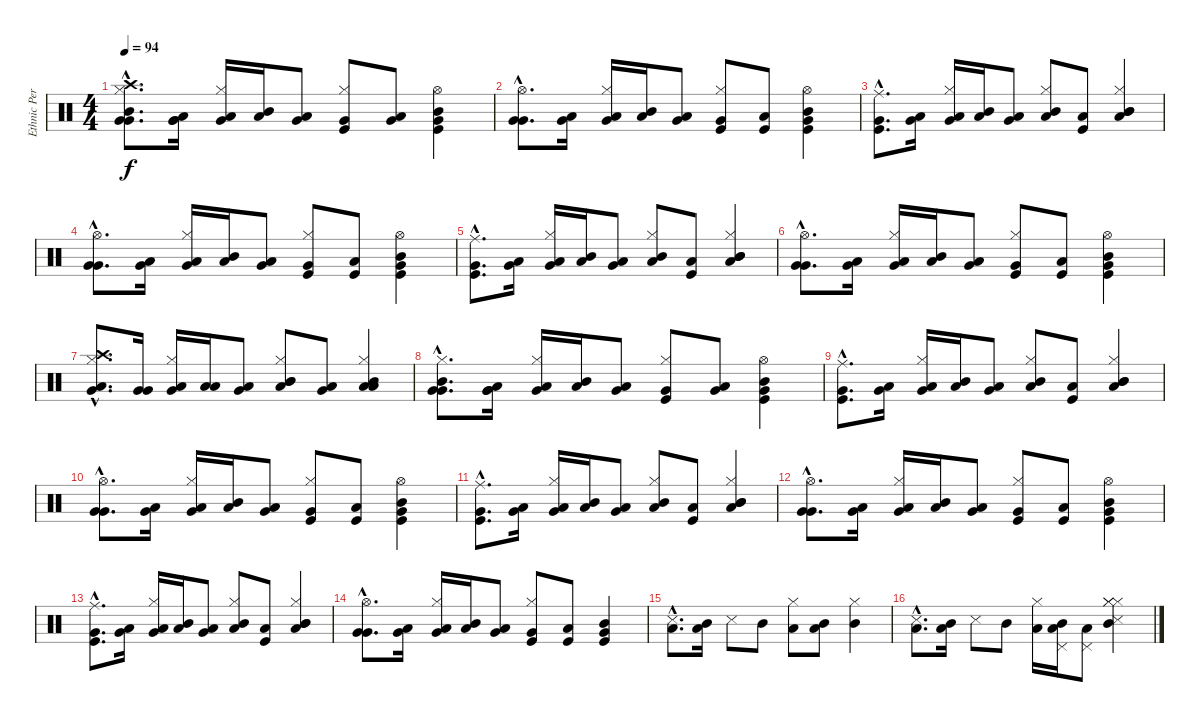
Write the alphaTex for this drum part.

\track ("Ethnic Percussion" "Ethnic Per") {instrument percussion}
\staff {score}
\articulation defaults
\ts (4 4)
\tempo 94
\clef neutral
\ks c
("Very Low Tom (hit)"{hac} "Very Low Tom (hit)"{hac} "Mid Tom (hit)"{hac} "Crash high (hit)"{hac} "Hi-Hat (closed)"{hac}).8{d dy f} ("Very Low Tom (hit)" "Very Low Tom (hit)" "Low Floor Tom (hit)").16 ("Very Low Tom (hit)" "Low Floor Tom (hit)" "Hi-Hat (closed)").16 ("Mid Tom (hit)" "Low Tom (hit)").16 ("Very Low Tom (hit)" "Low Tom (hit)").8 ("Kick (hit)" "Very Low Tom (hit)" "Hi-Hat (closed)").8 ("Low Tom (hit)" "Very Low Tom (hit)").8 ("Very Low Tom (hit)" "Kick (hit)" "Hi-Hat (open)" "Mid Tom (hit)").4 |
("Hi-Hat (open)"{hac} "Very Low Tom (hit)"{hac} "Very Low Tom (hit)"{hac}).8{d} ("Low Tom (hit)" "Very Low Tom (hit)").16 ("Very Low Tom (hit)" "Low Tom (hit)" "Hi-Hat (closed)").16 ("Mid Tom (hit)" "Low Tom (hit)").16 ("Very Low Tom (hit)" "Low Tom (hit)").8 ("Kick (hit)" "Very Low Tom (hit)" "Hi-Hat (closed)").8 ("Low Tom (hit)" "Kick (hit)").8 ("Very Low Tom (hit)" "Kick (hit)" "Hi-Hat (open)" "Mid Tom (hit)").4 |
("Ride (middle)"{hac} "Very Low Tom (hit)"{hac} "Kick (hit)"{hac}).8{d} ("Low Floor Tom (hit)" "Very Low Tom (hit)").16 ("Very Low Tom (hit)" "Low Tom (hit)" "Hi-Hat (closed)").16 ("Mid Tom (hit)" "Low Tom (hit)").16 ("Very Low Tom (hit)" "Low Tom (hit)").8 ("Mid Tom (hit)" "Low Tom (hit)" "Hi-Hat (closed)").8 ("Low Tom (hit)" "Kick (hit)").8 ("Mid Tom (hit)" "Low Floor Tom (hit)" "Mid Tom (hit)" "Hi-Hat (closed)").4 |
("Hi-Hat (open)"{hac} "Very Low Tom (hit)"{hac} "Very Low Tom (hit)"{hac}).8{d} ("Low Tom (hit)" "Very Low Tom (hit)").16 ("Very Low Tom (hit)" "Low Tom (hit)" "Hi-Hat (closed)").16 ("Mid Tom (hit)" "Low Tom (hit)").16 ("Very Low Tom (hit)" "Low Tom (hit)").8 ("Kick (hit)" "Very Low Tom (hit)" "Hi-Hat (closed)").8 ("Low Tom (hit)" "Kick (hit)").8 ("Very Low Tom (hit)" "Kick (hit)" "Hi-Hat (open)" "Mid Tom (hit)").4 |
("Ride (middle)"{hac} "Very Low Tom (hit)"{hac} "Kick (hit)"{hac}).8{d} ("Low Floor Tom (hit)" "Very Low Tom (hit)").16 ("Very Low Tom (hit)" "Low Tom (hit)" "Hi-Hat (closed)").16 ("Mid Tom (hit)" "Low Tom (hit)").16 ("Very Low Tom (hit)" "Low Tom (hit)").8 ("Mid Tom (hit)" "Low Tom (hit)" "Hi-Hat (closed)").8 ("Low Tom (hit)" "Kick (hit)").8 ("Mid Tom (hit)" "Low Floor Tom (hit)" "Mid Tom (hit)" "Hi-Hat (closed)").4 |
("Hi-Hat (open)"{hac} "Very Low Tom (hit)"{hac} "Very Low Tom (hit)"{hac}).8{d} ("Low Tom (hit)" "Very Low Tom (hit)").16 ("Very Low Tom (hit)" "Low Tom (hit)" "Hi-Hat (closed)").16 ("Mid Tom (hit)" "Low Tom (hit)").16 ("Very Low Tom (hit)" "Low Tom (hit)").8 ("Kick (hit)" "Very Low Tom (hit)" "Hi-Hat (closed)").8 ("Low Tom (hit)" "Kick (hit)").8 ("Very Low Tom (hit)" "Kick (hit)" "Hi-Hat (open)" "Mid Tom (hit)").4 |
("Crash high (hit)"{hac} "Very Low Tom (hit)"{hac} "Low Floor Tom (hit)"{hac} "Hi-Hat (closed)"{hac}).8{d} ("Very Low Tom (hit)" "Very Low Tom (hit)").16 ("Very Low Tom (hit)" "Low Floor Tom (hit)" "Hi-Hat (closed)").16 ("Low Tom (hit)" "Low Tom (hit)").16 ("Very Low Tom (hit)" "Low Floor Tom (hit)").8 ("Mid Tom (hit)" "Low Tom (hit)" "Mid Tom (hit)" "Hi-Hat (closed)").8 ("Low Tom (hit)" "Very Low Tom (hit)").8 ("Mid Tom (hit)" "Low Floor Tom (hit)" "Low Tom (hit)" "Hi-Hat (closed)").4 |
("Very Low Tom (hit)"{hac} "Very Low Tom (hit)"{hac} "Mid Tom (hit)"{hac} "Hi-Hat (closed)"{hac}).8{d} ("Very Low Tom (hit)" "Very Low Tom (hit)" "Low Floor Tom (hit)").16 ("Very Low Tom (hit)" "Low Floor Tom (hit)" "Hi-Hat (closed)").16 ("Mid Tom (hit)" "Low Tom (hit)").16 ("Very Low Tom (hit)" "Low Tom (hit)").8 ("Kick (hit)" "Very Low Tom (hit)" "Hi-Hat (closed)").8 ("Low Tom (hit)" "Very Low Tom (hit)").8 ("Very Low Tom (hit)" "Kick (hit)" "Hi-Hat (open)" "Mid Tom (hit)").4 |
("Ride (middle)"{hac} "Very Low Tom (hit)"{hac} "Kick (hit)"{hac}).8{d} ("Low Floor Tom (hit)" "Very Low Tom (hit)").16 ("Very Low Tom (hit)" "Low Tom (hit)" "Hi-Hat (closed)").16 ("Mid Tom (hit)" "Low Tom (hit)").16 ("Very Low Tom (hit)" "Low Tom (hit)").8 ("Mid Tom (hit)" "Low Tom (hit)" "Hi-Hat (closed)").8 ("Low Tom (hit)" "Kick (hit)").8 ("Mid Tom (hit)" "Low Floor Tom (hit)" "Mid Tom (hit)" "Hi-Hat (closed)").4 |
("Hi-Hat (open)"{hac} "Very Low Tom (hit)"{hac} "Very Low Tom (hit)"{hac}).8{d} ("Low Tom (hit)" "Very Low Tom (hit)").16 ("Very Low Tom (hit)" "Low Tom (hit)" "Hi-Hat (closed)").16 ("Mid Tom (hit)" "Low Tom (hit)").16 ("Very Low Tom (hit)" "Low Tom (hit)").8 ("Kick (hit)" "Very Low Tom (hit)" "Hi-Hat (closed)").8 ("Low Tom (hit)" "Kick (hit)").8 ("Very Low Tom (hit)" "Kick (hit)" "Hi-Hat (open)" "Mid Tom (hit)").4 |
("Ride (middle)"{hac} "Very Low Tom (hit)"{hac} "Kick (hit)"{hac}).8{d} ("Low Floor Tom (hit)" "Very Low Tom (hit)").16 ("Very Low Tom (hit)" "Low Tom (hit)" "Hi-Hat (closed)").16 ("Mid Tom (hit)" "Low Tom (hit)").16 ("Very Low Tom (hit)" "Low Tom (hit)").8 ("Mid Tom (hit)" "Low Tom (hit)" "Hi-Hat (closed)").8 ("Low Tom (hit)" "Kick (hit)").8 ("Mid Tom (hit)" "Low Floor Tom (hit)" "Mid Tom (hit)" "Hi-Hat (closed)").4 |
("Hi-Hat (open)"{hac} "Very Low Tom (hit)"{hac} "Very Low Tom (hit)"{hac}).8{d} ("Low Tom (hit)" "Very Low Tom (hit)").16 ("Very Low Tom (hit)" "Low Tom (hit)" "Hi-Hat (closed)").16 ("Mid Tom (hit)" "Low Tom (hit)").16 ("Very Low Tom (hit)" "Low Tom (hit)").8 ("Kick (hit)" "Very Low Tom (hit)" "Hi-Hat (closed)").8 ("Low Tom (hit)" "Kick (hit)").8 ("Very Low Tom (hit)" "Kick (hit)" "Hi-Hat (open)" "Mid Tom (hit)").4 |
("Ride (middle)"{hac} "Very Low Tom (hit)"{hac} "Kick (hit)"{hac}).8{d} ("Low Floor Tom (hit)" "Very Low Tom (hit)").16 ("Very Low Tom (hit)" "Low Tom (hit)" "Hi-Hat (closed)").16 ("Mid Tom (hit)" "Low Tom (hit)").16 ("Very Low Tom (hit)" "Low Tom (hit)").8 ("Mid Tom (hit)" "Low Tom (hit)" "Hi-Hat (closed)").8 ("Low Tom (hit)" "Kick (hit)").8 ("Mid Tom (hit)" "Low Floor Tom (hit)" "Mid Tom (hit)" "Hi-Hat (closed)").4 |
("Hi-Hat (open)"{hac} "Very Low Tom (hit)"{hac} "Very Low Tom (hit)"{hac}).8{d} ("Low Tom (hit)" "Very Low Tom (hit)").16 ("Very Low Tom (hit)" "Low Tom (hit)" "Hi-Hat (closed)").16 ("Mid Tom (hit)" "Low Tom (hit)").16 ("Very Low Tom (hit)" "Low Tom (hit)").8 ("Kick (hit)" "Very Low Tom (hit)" "Hi-Hat (closed)").8 ("Low Tom (hit)" "Kick (hit)").8 ("Very Low Tom (hit)" "Kick (hit)" "Mid Tom (hit)").4 |
("Low Tom (hit)"{hac} "Snare (side stick) 3"{hac}).8{d} ("Low Tom (hit)" "Mid Tom (hit)").16 "Snare (side stick) 3".8 "Mid Tom (hit)".8 ("Low Tom (hit)" "Hi-Hat (closed)").8 ("Low Tom (hit)" "Mid Tom (hit)").8 ("Mid Tom (hit)" "Hi-Hat (closed)").4 |
("Low Tom (hit)"{hac} "Snare (side stick) 3"{hac}).8{d} ("Low Tom (hit)" "Mid Tom (hit)").16 "Snare (side stick) 3".8 "Mid Tom (hit)".8 ("Low Tom (hit)" "Hi-Hat (closed)").16 ("Low Tom (hit)" "Pedal Hi-Hat (hit)" "Mid Tom (hit)").16 ("Low Tom (hit)" "Pedal Hi-Hat (hit)").8 ("Snare (side stick) 3" "Mid Tom (hit)" "Hi-Hat (closed)" "Hi-Hat (closed)" "Hi-Hat (closed)").4
